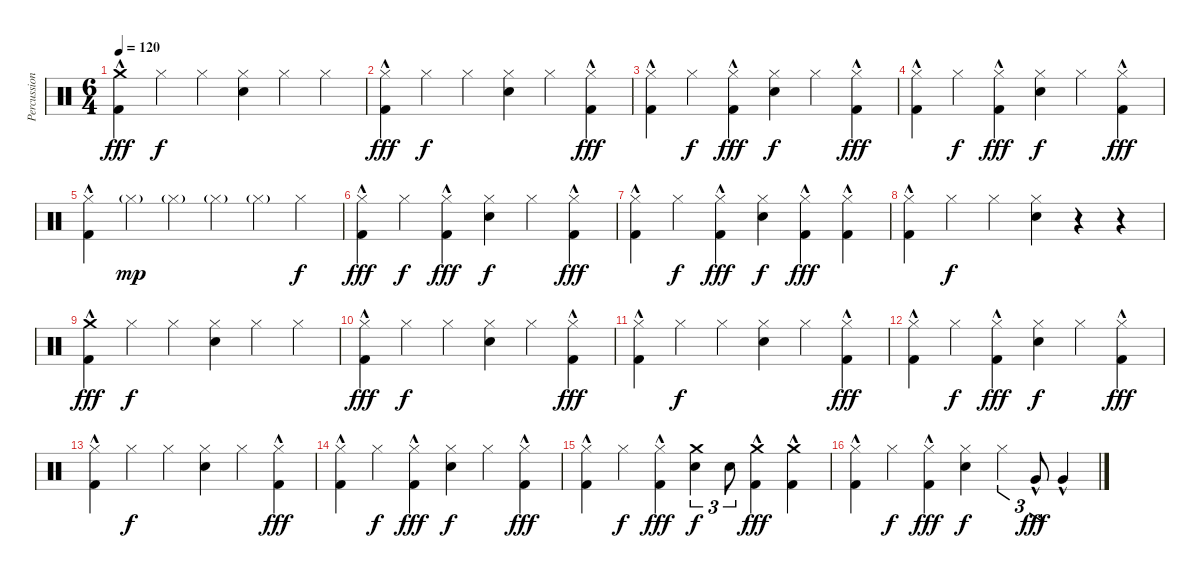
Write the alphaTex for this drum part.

\track ("Percussion" "Percussion") {instrument percussion}
\staff {score}
\articulation defaults
\ts (6 4)
\tempo 120
\clef neutral
\ks c
("Crash medium (hit)" "Kick (hit) 2"{hac}).4{dy fff} "Hi-Hat (closed)".4{dy f} "Hi-Hat (closed)".4 ("Hi-Hat (closed)" "Snare (hit) 2").4 "Hi-Hat (closed)".4 "Hi-Hat (closed)".4 |
("Hi-Hat (closed)" "Kick (hit) 2"{hac}).4{dy fff} "Hi-Hat (closed)".4{dy f} "Hi-Hat (closed)".4 ("Hi-Hat (closed)" "Snare (hit) 2").4 "Hi-Hat (closed)".4 ("Hi-Hat (closed)" "Kick (hit) 2"{hac}).4{dy fff} |
("Hi-Hat (closed)" "Kick (hit) 2"{hac}).4 "Hi-Hat (closed)".4{dy f} ("Hi-Hat (closed)" "Kick (hit) 2"{hac}).4{dy fff} ("Hi-Hat (closed)" "Snare (hit) 2").4{dy f} "Hi-Hat (closed)".4 ("Hi-Hat (closed)" "Kick (hit) 2"{hac}).4{dy fff} |
("Hi-Hat (closed)" "Kick (hit) 2"{hac}).4 "Hi-Hat (closed)".4{dy f} ("Hi-Hat (closed)" "Kick (hit) 2"{hac}).4{dy fff} ("Hi-Hat (closed)" "Snare (hit) 2").4{dy f} "Hi-Hat (closed)".4 ("Hi-Hat (closed)" "Kick (hit) 2"{hac}).4{dy fff} |
("Hi-Hat (closed)" "Kick (hit) 2"{hac}).4 "Hi-Hat (closed)"{g}.4{dy mp} "Hi-Hat (closed)"{g}.4 "Hi-Hat (closed)"{g}.4 "Hi-Hat (closed)"{g}.4 "Hi-Hat (closed)".4{dy f} |
("Hi-Hat (closed)" "Kick (hit) 2"{hac}).4{dy fff} "Hi-Hat (closed)".4{dy f} ("Hi-Hat (closed)" "Kick (hit) 2"{hac}).4{dy fff} ("Hi-Hat (closed)" "Snare (hit) 2").4{dy f} "Hi-Hat (closed)".4 ("Hi-Hat (closed)" "Kick (hit) 2"{hac}).4{dy fff} |
("Hi-Hat (closed)" "Kick (hit) 2"{hac}).4 "Hi-Hat (closed)".4{dy f} ("Hi-Hat (closed)" "Kick (hit) 2"{hac}).4{dy fff} ("Hi-Hat (closed)" "Snare (hit) 2").4{dy f} ("Hi-Hat (closed)" "Kick (hit) 2"{hac}).4{dy fff} ("Hi-Hat (closed)" "Kick (hit) 2"{hac}).4 |
("Hi-Hat (closed)" "Kick (hit) 2"{hac}).4 "Hi-Hat (closed)".4{dy f} "Hi-Hat (closed)".4 ("Hi-Hat (closed)" "Snare (hit) 2").4 r.4 r.4 |
("Crash medium (hit)" "Kick (hit) 2"{hac}).4{dy fff} "Hi-Hat (closed)".4{dy f} "Hi-Hat (closed)".4 ("Hi-Hat (closed)" "Snare (hit) 2").4 "Hi-Hat (closed)".4 "Hi-Hat (closed)".4 |
("Hi-Hat (closed)" "Kick (hit) 2"{hac}).4{dy fff} "Hi-Hat (closed)".4{dy f} "Hi-Hat (closed)".4 ("Hi-Hat (closed)" "Snare (hit) 2").4 "Hi-Hat (closed)".4 ("Hi-Hat (closed)" "Kick (hit) 2"{hac}).4{dy fff} |
("Hi-Hat (closed)" "Kick (hit) 2"{hac}).4 "Hi-Hat (closed)".4{dy f} "Hi-Hat (closed)".4 ("Hi-Hat (closed)" "Snare (hit) 2").4 "Hi-Hat (closed)".4 ("Hi-Hat (closed)" "Kick (hit) 2"{hac}).4{dy fff} |
("Hi-Hat (closed)" "Kick (hit) 2"{hac}).4 "Hi-Hat (closed)".4{dy f} ("Hi-Hat (closed)" "Kick (hit) 2"{hac}).4{dy fff} ("Hi-Hat (closed)" "Snare (hit) 2").4{dy f} "Hi-Hat (closed)".4 ("Hi-Hat (closed)" "Kick (hit) 2"{hac}).4{dy fff} |
("Hi-Hat (closed)" "Kick (hit) 2"{hac}).4 "Hi-Hat (closed)".4{dy f} "Hi-Hat (closed)".4 ("Hi-Hat (closed)" "Snare (hit) 2").4 "Hi-Hat (closed)".4 ("Hi-Hat (closed)" "Kick (hit) 2"{hac}).4{dy fff} |
("Hi-Hat (closed)" "Kick (hit) 2"{hac}).4 "Hi-Hat (closed)".4{dy f} ("Hi-Hat (closed)" "Kick (hit) 2"{hac}).4{dy fff} ("Hi-Hat (closed)" "Snare (hit) 2").4{dy f} "Hi-Hat (closed)".4 ("Hi-Hat (closed)" "Kick (hit) 2"{hac}).4{dy fff} |
("Hi-Hat (closed)" "Kick (hit) 2"{hac}).4 "Hi-Hat (closed)".4{dy f} ("Hi-Hat (closed)" "Kick (hit) 2"{hac}).4{dy fff} ("Crash medium (hit)" "Snare (hit) 2").4{tu (3 2) dy f} "Snare (hit) 2".8{tu (3 2)} ("Crash medium (hit)" "Kick (hit) 2"{hac}).4{dy fff} ("Crash medium (hit)" "Kick (hit) 2"{hac}).4 |
("Hi-Hat (closed)" "Kick (hit) 2"{hac}).4 "Hi-Hat (closed)".4{dy f} ("Hi-Hat (closed)" "Kick (hit) 2"{hac}).4{dy fff} ("Hi-Hat (closed)" "Snare (hit) 2").4{dy f} "Hi-Hat (closed)".4{tu (3 2)} "Very Low Tom (hit)"{hac}.8{tu (3 2) dy fff} "Very Low Tom (hit)"{hac}.4
